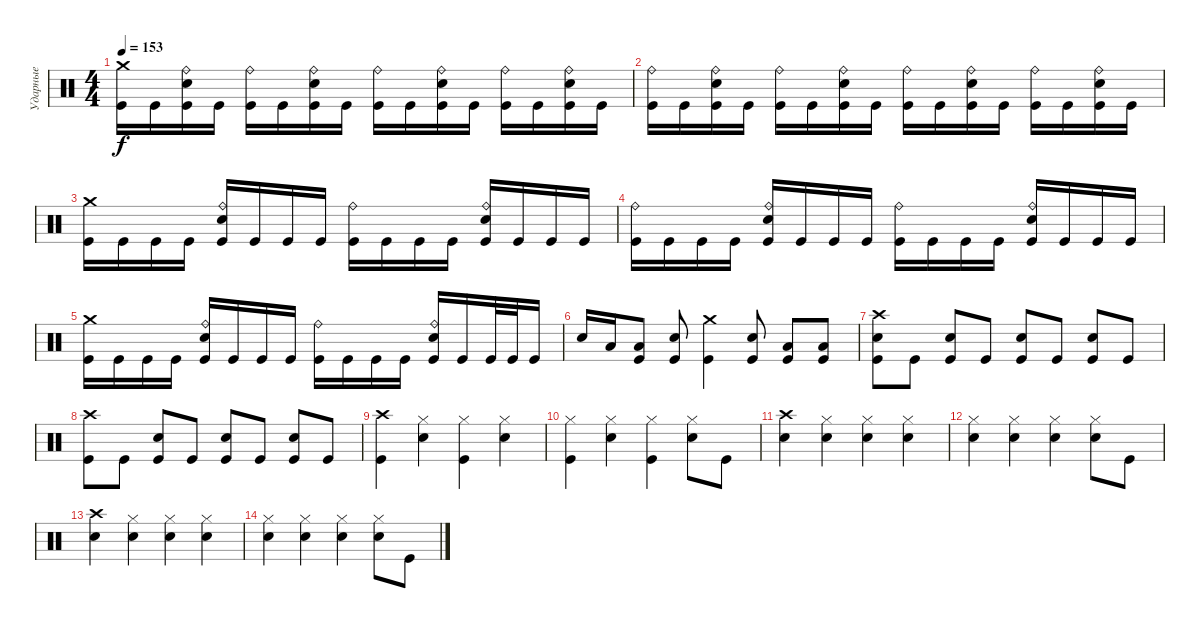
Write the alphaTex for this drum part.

\track ("Ударные" "Ударные") {instrument percussion}
\staff {score}
\articulation defaults
\ts (4 4)
\tempo 153
\clef neutral
\ks c
("Crash medium (hit)" "Kick (hit)").16{dy f} "Kick (hit)".16 ("Ride (bell)" "Electric Snare (hit)" "Kick (hit)").16 "Kick (hit)".16 ("Ride (bell)" "Kick (hit)").16 "Kick (hit)".16 ("Ride (bell)" "Electric Snare (hit)" "Kick (hit)").16 "Kick (hit)".16 ("Ride (bell)" "Kick (hit)").16 "Kick (hit)".16 ("Ride (bell)" "Electric Snare (hit)" "Kick (hit)").16 "Kick (hit)".16 ("Ride (bell)" "Kick (hit)").16 "Kick (hit)".16 ("Ride (bell)" "Electric Snare (hit)" "Kick (hit)").16 "Kick (hit)".16 |
("Ride (bell)" "Kick (hit)").16 "Kick (hit)".16 ("Ride (bell)" "Electric Snare (hit)" "Kick (hit)").16 "Kick (hit)".16 ("Ride (bell)" "Kick (hit)").16 "Kick (hit)".16 ("Ride (bell)" "Electric Snare (hit)" "Kick (hit)").16 "Kick (hit)".16 ("Ride (bell)" "Kick (hit)").16 "Kick (hit)".16 ("Ride (bell)" "Electric Snare (hit)" "Kick (hit)").16 "Kick (hit)".16 ("Ride (bell)" "Kick (hit)").16 "Kick (hit)".16 ("Ride (bell)" "Electric Snare (hit)" "Kick (hit)").16 "Kick (hit)".16 |
("Crash medium (hit)" "Kick (hit)").16 "Kick (hit)".16 "Kick (hit)".16 "Kick (hit)".16 ("Ride (bell)" "Electric Snare (hit)" "Kick (hit)").16 "Kick (hit)".16 "Kick (hit)".16 "Kick (hit)".16 ("Ride (bell)" "Kick (hit)").16 "Kick (hit)".16 "Kick (hit)".16 "Kick (hit)".16 ("Ride (bell)" "Electric Snare (hit)" "Kick (hit)").16 "Kick (hit)".16 "Kick (hit)".16 "Kick (hit)".16 |
("Ride (bell)" "Kick (hit)").16 "Kick (hit)".16 "Kick (hit)".16 "Kick (hit)".16 ("Ride (bell)" "Electric Snare (hit)" "Kick (hit)").16 "Kick (hit)".16 "Kick (hit)".16 "Kick (hit)".16 ("Ride (bell)" "Kick (hit)").16 "Kick (hit)".16 "Kick (hit)".16 "Kick (hit)".16 ("Ride (bell)" "Electric Snare (hit)" "Kick (hit)").16 "Kick (hit)".16 "Kick (hit)".16 "Kick (hit)".16 |
("Crash medium (hit)" "Kick (hit)").16 "Kick (hit)".16 "Kick (hit)".16 "Kick (hit)".16 ("Ride (bell)" "Electric Snare (hit)" "Kick (hit)").16 "Kick (hit)".16 "Kick (hit)".16 "Kick (hit)".16 ("Ride (bell)" "Kick (hit)").16 "Kick (hit)".16 "Kick (hit)".16 "Kick (hit)".16 ("Ride (bell)" "Electric Snare (hit)" "Kick (hit)").16 "Kick (hit)".16 "Kick (hit)".32 "Kick (hit)".32 "Kick (hit)".16 |
"Electric Snare (hit)".16 "Low Tom (hit)".16 ("Low Tom (hit)" "Kick (hit)").8 ("Electric Snare (hit)" "Kick (hit)").8 ("Crash medium (hit)" "Kick (hit)").4 ("Electric Snare (hit)" "Kick (hit)").8 ("Low Tom (hit)" "Kick (hit)").8 ("Low Tom (hit)" "Kick (hit)").8 |
("Crash high (hit)" "Electric Snare (hit)" "Kick (hit)").8 "Kick (hit)".8 ("Electric Snare (hit)" "Kick (hit)").8 "Kick (hit)".8 ("Electric Snare (hit)" "Kick (hit)").8 "Kick (hit)".8 ("Electric Snare (hit)" "Kick (hit)").8 "Kick (hit)".8 |
("Crash high (hit)" "Kick (hit)").8 "Kick (hit)".8 ("Electric Snare (hit)" "Kick (hit)").8 "Kick (hit)".8 ("Electric Snare (hit)" "Kick (hit)").8 "Kick (hit)".8 ("Electric Snare (hit)" "Kick (hit)").8 "Kick (hit)".8 |
("Crash high (hit)" "Kick (hit)").4 ("Hi-Hat (closed)" "Electric Snare (hit)").4 ("Hi-Hat (closed)" "Kick (hit)").4 ("Hi-Hat (closed)" "Electric Snare (hit)").4 |
("Hi-Hat (closed)" "Kick (hit)").4 ("Hi-Hat (closed)" "Electric Snare (hit)").4 ("Hi-Hat (closed)" "Kick (hit)").4 ("Hi-Hat (closed)" "Electric Snare (hit)").8 "Kick (hit)".8 |
("Crash high (hit)" "Electric Snare (hit)").4 ("Hi-Hat (closed)" "Electric Snare (hit)").4 ("Hi-Hat (closed)" "Electric Snare (hit)").4 ("Hi-Hat (closed)" "Electric Snare (hit)").4 |
("Hi-Hat (closed)" "Electric Snare (hit)").4 ("Hi-Hat (closed)" "Electric Snare (hit)").4 ("Hi-Hat (closed)" "Electric Snare (hit)").4 ("Hi-Hat (closed)" "Electric Snare (hit)").8 "Kick (hit)".8 |
("Crash high (hit)" "Electric Snare (hit)").4 ("Hi-Hat (closed)" "Electric Snare (hit)").4 ("Hi-Hat (closed)" "Electric Snare (hit)").4 ("Hi-Hat (closed)" "Electric Snare (hit)").4 |
("Hi-Hat (closed)" "Electric Snare (hit)").4 ("Hi-Hat (closed)" "Electric Snare (hit)").4 ("Hi-Hat (closed)" "Electric Snare (hit)").4 ("Hi-Hat (closed)" "Electric Snare (hit)").8 "Kick (hit)".8
